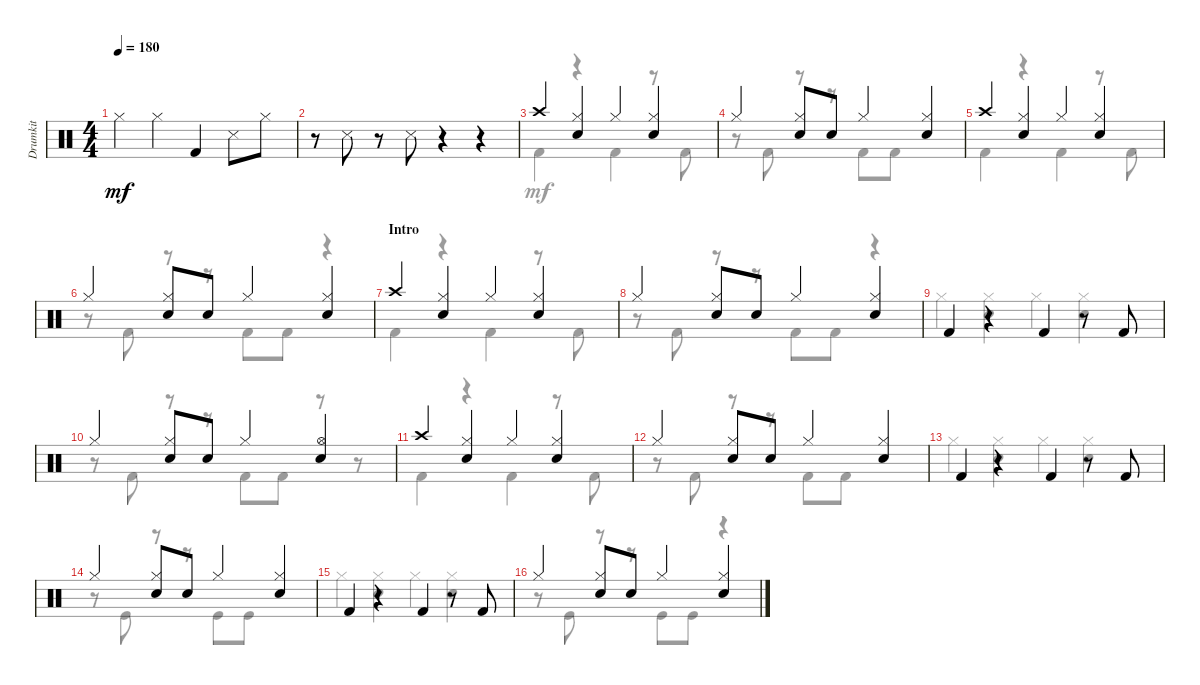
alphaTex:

\track ("Drumkit" "Drumkit") {instrument percussion}
\staff {score}
\articulation defaults
\voice
\ts (4 4)
\tempo 180
\clef neutral
\ks c "Hi-Hat (closed)".4{dy mf} "Hi-Hat (closed)".4 "Kick (hit) 2".4 "Snare (side stick) 3".8 "Hi-Hat (closed)".8
|
r.8 "Snare (side stick) 3".8 r.8 "Snare (side stick) 3".8 r.4 r.4 |
"Crash high (hit)".4 ("Hi-Hat (closed)" "Snare (hit) 2").4 "Hi-Hat (closed)".4 ("Hi-Hat (closed)" "Snare (hit) 2").4 |
"Hi-Hat (closed)".4 ("Hi-Hat (closed)" "Snare (hit) 2").8 "Snare (hit) 2".8 "Hi-Hat (closed)".4 ("Hi-Hat (closed)" "Snare (hit) 2").4 |
"Crash high (hit)".4 ("Hi-Hat (closed)" "Snare (hit) 2").4 "Hi-Hat (closed)".4 ("Hi-Hat (closed)" "Snare (hit) 2").4 |
"Hi-Hat (closed)".4 ("Hi-Hat (closed)" "Snare (hit) 2").8 "Snare (hit) 2".8 "Hi-Hat (closed)".4 ("Hi-Hat (closed)" "Snare (hit) 2").4 |
\section ("" "Intro")
"Crash high (hit)".4 ("Hi-Hat (closed)" "Snare (hit) 2").4 "Hi-Hat (closed)".4 ("Hi-Hat (closed)" "Snare (hit) 2").4 |
"Hi-Hat (closed)".4 ("Hi-Hat (closed)" "Snare (hit) 2").8 "Snare (hit) 2".8 "Hi-Hat (closed)".4 ("Hi-Hat (closed)" "Snare (hit) 2").4 |
"Kick (hit) 2".4 r.4 "Kick (hit) 2".4 r.8 "Kick (hit) 2".8 |
"Hi-Hat (closed)".4 ("Hi-Hat (closed)" "Snare (hit) 2").8 "Snare (hit) 2".8 "Hi-Hat (closed)".4 ("Hi-Hat (open)" "Snare (hit) 2").4 |
"Crash high (hit)".4 ("Hi-Hat (closed)" "Snare (hit) 2").4 "Hi-Hat (closed)".4 ("Hi-Hat (closed)" "Snare (hit) 2").4 |
"Hi-Hat (closed)".4 ("Hi-Hat (closed)" "Snare (hit) 2").8 "Snare (hit) 2".8 "Hi-Hat (closed)".4 ("Hi-Hat (closed)" "Snare (hit) 2").4 |
"Kick (hit) 2".4 r.4 "Kick (hit) 2".4 r.8 "Kick (hit) 2".8 |
"Hi-Hat (closed)".4 ("Hi-Hat (closed)" "Snare (hit) 2").8 "Snare (hit) 2".8 "Hi-Hat (closed)".4 ("Hi-Hat (closed)" "Snare (hit) 2").4 |
"Kick (hit) 2".4 r.4 "Kick (hit) 2".4 r.8 "Kick (hit) 2".8 |
"Hi-Hat (closed)".4 ("Hi-Hat (closed)" "Snare (hit) 2").8 "Snare (hit) 2".8 "Hi-Hat (closed)".4 ("Hi-Hat (closed)" "Snare (hit) 2").4
\voice
\clef neutral
\ottava regular
\simile none
\ks c
|
|
"Kick (hit) 2".4 r.4 "Kick (hit) 2".4 r.8 "Kick (hit) 2".8 |
r.8 "Kick (hit) 2".8 r.8 r.8 "Kick (hit) 2".8 "Kick (hit) 2".8 |
"Kick (hit) 2".4 r.4 "Kick (hit) 2".4 r.8 "Kick (hit) 2".8 |
r.8 "Kick (hit) 2".8 r.8 r.8 "Kick (hit) 2".8 "Kick (hit) 2".8 r.4 |
"Kick (hit) 2".4 r.4 "Kick (hit) 2".4 r.8 "Kick (hit) 2".8 |
r.8 "Kick (hit) 2".8 r.8 r.8 "Kick (hit) 2".8 "Kick (hit) 2".8 r.4 |
"Hi-Hat (closed)".4 ("Hi-Hat (closed)" "Snare (hit) 2").4 "Hi-Hat (closed)".4 ("Hi-Hat (closed)" "Snare (hit) 2").4 |
r.8 "Kick (hit) 2".8 r.8 r.8 "Kick (hit) 2".8 "Kick (hit) 2".8 r.8 r.8 |
"Kick (hit) 2".4 r.4 "Kick (hit) 2".4 r.8 "Kick (hit) 2".8 |
r.8 "Kick (hit) 2".8 r.8 r.8 "Kick (hit) 2".8 "Kick (hit) 2".8 |
"Hi-Hat (closed)".4 ("Hi-Hat (closed)" "Snare (hit) 2").4 "Hi-Hat (closed)".4 ("Hi-Hat (closed)" "Snare (hit) 2").4 |
r.8 "Kick (hit)".8 r.8 r.8 "Kick (hit)".8 "Kick (hit)".8 |
"Hi-Hat (closed)".4 ("Hi-Hat (closed)" "Snare (hit) 2").4 "Hi-Hat (closed)".4 ("Hi-Hat (closed)" "Snare (hit) 2").4 |
r.8 "Kick (hit)".8 r.8 r.8 "Kick (hit)".8 "Kick (hit)".8 r.4
